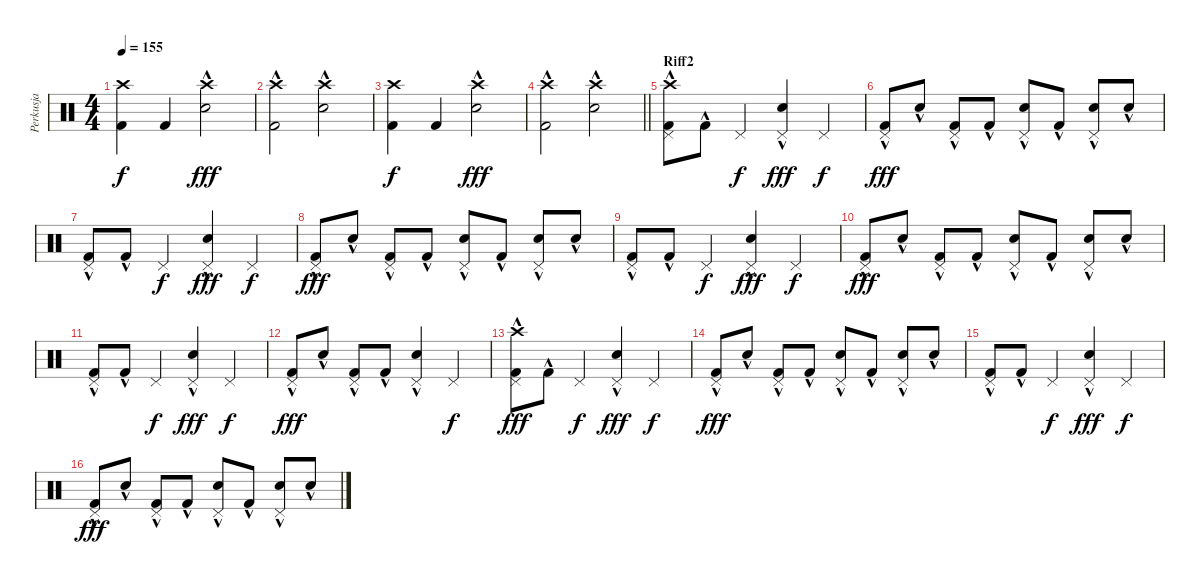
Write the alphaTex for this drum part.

\track ("Perkusja" "Perkusja") {instrument percussion}
\staff {score}
\articulation defaults
\ts (4 4)
\tempo 155
\clef neutral
\ks c
("Crash high (hit)" "Kick (hit) 2").4{dy f} "Kick (hit) 2".4 ("Crash high (hit)" "Electric Snare (hit)"{hac}).2{dy fff} |
("Crash high (hit)" "Kick (hit) 2"{hac}).2 ("Crash high (hit)" "Electric Snare (hit)"{hac}).2 |
("Crash high (hit)" "Kick (hit) 2").4{dy f} "Kick (hit) 2".4 ("Crash high (hit)" "Electric Snare (hit)"{hac}).2{dy fff} |
\barLineRight lightlight
("Crash high (hit)" "Kick (hit) 2"{hac}).2 ("Crash high (hit)" "Electric Snare (hit)"{hac}).2 |
\section ("" "Riff2")
("Crash high (hit)" "Pedal Hi-Hat (hit)" "Kick (hit) 2"{hac}).8 "Kick (hit) 2"{hac}.8 "Pedal Hi-Hat (hit)".4{dy f} ("Pedal Hi-Hat (hit)" "Electric Snare (hit)"{hac}).4{dy fff} "Pedal Hi-Hat (hit)".4{dy f} |
("Pedal Hi-Hat (hit)" "Kick (hit) 2"{hac}).8{dy fff} "Electric Snare (hit)"{hac}.8 ("Pedal Hi-Hat (hit)" "Kick (hit) 2"{hac}).8 "Kick (hit) 2"{hac}.8 ("Pedal Hi-Hat (hit)" "Electric Snare (hit)"{hac}).8 "Kick (hit) 2"{hac}.8 ("Pedal Hi-Hat (hit)" "Electric Snare (hit)"{hac}).8 "Electric Snare (hit)"{hac}.8 |
("Pedal Hi-Hat (hit)" "Kick (hit) 2"{hac}).8 "Kick (hit) 2"{hac}.8 "Pedal Hi-Hat (hit)".4{dy f} ("Pedal Hi-Hat (hit)" "Electric Snare (hit)"{hac}).4{dy fff} "Pedal Hi-Hat (hit)".4{dy f} |
("Pedal Hi-Hat (hit)" "Kick (hit) 2"{hac}).8{dy fff} "Electric Snare (hit)"{hac}.8 ("Pedal Hi-Hat (hit)" "Kick (hit) 2"{hac}).8 "Kick (hit) 2"{hac}.8 ("Pedal Hi-Hat (hit)" "Electric Snare (hit)"{hac}).8 "Kick (hit) 2"{hac}.8 ("Pedal Hi-Hat (hit)" "Electric Snare (hit)"{hac}).8 "Electric Snare (hit)"{hac}.8 |
("Pedal Hi-Hat (hit)" "Kick (hit) 2"{hac}).8 "Kick (hit) 2"{hac}.8 "Pedal Hi-Hat (hit)".4{dy f} ("Pedal Hi-Hat (hit)" "Electric Snare (hit)"{hac}).4{dy fff} "Pedal Hi-Hat (hit)".4{dy f} |
("Pedal Hi-Hat (hit)" "Kick (hit) 2"{hac}).8{dy fff} "Electric Snare (hit)"{hac}.8 ("Pedal Hi-Hat (hit)" "Kick (hit) 2"{hac}).8 "Kick (hit) 2"{hac}.8 ("Pedal Hi-Hat (hit)" "Electric Snare (hit)"{hac}).8 "Kick (hit) 2"{hac}.8 ("Pedal Hi-Hat (hit)" "Electric Snare (hit)"{hac}).8 "Electric Snare (hit)"{hac}.8 |
("Pedal Hi-Hat (hit)" "Kick (hit) 2"{hac}).8 "Kick (hit) 2"{hac}.8 "Pedal Hi-Hat (hit)".4{dy f} ("Pedal Hi-Hat (hit)" "Electric Snare (hit)"{hac}).4{dy fff} "Pedal Hi-Hat (hit)".4{dy f} |
("Pedal Hi-Hat (hit)" "Kick (hit) 2"{hac}).8{dy fff} "Electric Snare (hit)"{hac}.8 ("Pedal Hi-Hat (hit)" "Kick (hit) 2"{hac}).8 "Kick (hit) 2"{hac}.8 ("Pedal Hi-Hat (hit)" "Electric Snare (hit)"{hac}).4 "Pedal Hi-Hat (hit)".4{dy f} |
("Crash high (hit)" "Pedal Hi-Hat (hit)" "Kick (hit) 2"{hac}).8{dy fff} "Kick (hit) 2"{hac}.8 "Pedal Hi-Hat (hit)".4{dy f} ("Pedal Hi-Hat (hit)" "Electric Snare (hit)"{hac}).4{dy fff} "Pedal Hi-Hat (hit)".4{dy f} |
("Pedal Hi-Hat (hit)" "Kick (hit) 2"{hac}).8{dy fff} "Electric Snare (hit)"{hac}.8 ("Pedal Hi-Hat (hit)" "Kick (hit) 2"{hac}).8 "Kick (hit) 2"{hac}.8 ("Pedal Hi-Hat (hit)" "Electric Snare (hit)"{hac}).8 "Kick (hit) 2"{hac}.8 ("Pedal Hi-Hat (hit)" "Electric Snare (hit)"{hac}).8 "Electric Snare (hit)"{hac}.8 |
("Pedal Hi-Hat (hit)" "Kick (hit) 2"{hac}).8 "Kick (hit) 2"{hac}.8 "Pedal Hi-Hat (hit)".4{dy f} ("Pedal Hi-Hat (hit)" "Electric Snare (hit)"{hac}).4{dy fff} "Pedal Hi-Hat (hit)".4{dy f} |
("Pedal Hi-Hat (hit)" "Kick (hit) 2"{hac}).8{dy fff} "Electric Snare (hit)"{hac}.8 ("Pedal Hi-Hat (hit)" "Kick (hit) 2"{hac}).8 "Kick (hit) 2"{hac}.8 ("Pedal Hi-Hat (hit)" "Electric Snare (hit)"{hac}).8 "Kick (hit) 2"{hac}.8 ("Pedal Hi-Hat (hit)" "Electric Snare (hit)"{hac}).8 "Electric Snare (hit)"{hac}.8
